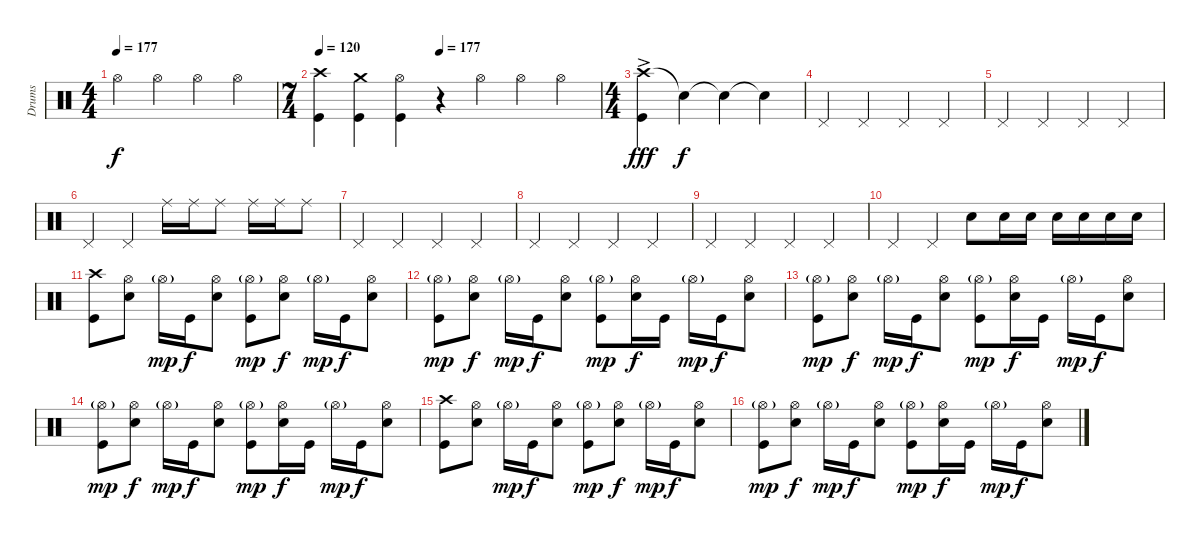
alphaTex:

\track ("Drums" "Drums") {instrument percussion}
\staff {score}
\articulation defaults
\ts (4 4)
\tempo 177
\clef neutral
\ks c "Hi-Hat (open)".4{dy f} "Hi-Hat (open)".4 "Hi-Hat (open)".4 "Hi-Hat (open)".4
|
\ts (7 4)
\tempo 120
\tempo (177 0.42857142857142855)
("Crash high (hit)" "Kick (hit)").4 ("Crash medium (hit)" "Kick (hit)").4 ("Hi-Hat (open)" "Kick (hit)").4 r.4 "Hi-Hat (open)".4 "Hi-Hat (open)".4 "Hi-Hat (open)".4 |
\ts (4 4)
("Crash high (hit)"{ac} "Kick (hit)").4{dy fff} "Snare (hit)"{t}.4{dy f} "Snare (hit)"{t}.4 "Snare (hit)"{t}.4 |
"Pedal Hi-Hat (hit)".4 "Pedal Hi-Hat (hit)".4 "Pedal Hi-Hat (hit)".4 "Pedal Hi-Hat (hit)".4 |
"Pedal Hi-Hat (hit)".4 "Pedal Hi-Hat (hit)".4 "Pedal Hi-Hat (hit)".4 "Pedal Hi-Hat (hit)".4 |
"Pedal Hi-Hat (hit)".4 "Pedal Hi-Hat (hit)".4 "Ride (middle)".16 "Ride (middle)".16 "Ride (middle)".8 "Ride (middle)".16 "Ride (middle)".16 "Ride (middle)".8 |
"Pedal Hi-Hat (hit)".4 "Pedal Hi-Hat (hit)".4 "Pedal Hi-Hat (hit)".4 "Pedal Hi-Hat (hit)".4 |
"Pedal Hi-Hat (hit)".4 "Pedal Hi-Hat (hit)".4 "Pedal Hi-Hat (hit)".4 "Pedal Hi-Hat (hit)".4 |
"Pedal Hi-Hat (hit)".4 "Pedal Hi-Hat (hit)".4 "Pedal Hi-Hat (hit)".4 "Pedal Hi-Hat (hit)".4 |
"Pedal Hi-Hat (hit)".4 "Pedal Hi-Hat (hit)".4 "Electric Snare (hit)".8 "Electric Snare (hit)".16 "Electric Snare (hit)".16 "Electric Snare (hit)".16 "Electric Snare (hit)".16 "Electric Snare (hit)".16 "Electric Snare (hit)".16 |
("Crash high (hit)" "Kick (hit)").8 ("Hi-Hat (open)" "Electric Snare (hit)").8 "Hi-Hat (open)"{g}.16{dy mp} "Kick (hit)".16{dy f} ("Hi-Hat (open)" "Electric Snare (hit)").8 ("Hi-Hat (open)"{g} "Kick (hit)").8{dy mp} ("Hi-Hat (open)" "Electric Snare (hit)").8{dy f} "Hi-Hat (open)"{g}.16{dy mp} "Kick (hit)".16{dy f} ("Hi-Hat (open)" "Electric Snare (hit)").8 |
("Hi-Hat (open)"{g} "Kick (hit)").8{dy mp} ("Hi-Hat (open)" "Electric Snare (hit)").8{dy f} "Hi-Hat (open)"{g}.16{dy mp} "Kick (hit)".16{dy f} ("Hi-Hat (open)" "Electric Snare (hit)").8 ("Hi-Hat (open)"{g} "Kick (hit)").8{dy mp} ("Hi-Hat (open)" "Electric Snare (hit)").16{dy f} "Kick (hit)".16 "Hi-Hat (open)"{g}.16{dy mp} "Kick (hit)".16{dy f} ("Hi-Hat (open)" "Electric Snare (hit)").8 |
("Hi-Hat (open)"{g} "Kick (hit)").8{dy mp} ("Hi-Hat (open)" "Electric Snare (hit)").8{dy f} "Hi-Hat (open)"{g}.16{dy mp} "Kick (hit)".16{dy f} ("Hi-Hat (open)" "Electric Snare (hit)").8 ("Hi-Hat (open)"{g} "Kick (hit)").8{dy mp} ("Hi-Hat (open)" "Electric Snare (hit)").16{dy f} "Kick (hit)".16 "Hi-Hat (open)"{g}.16{dy mp} "Kick (hit)".16{dy f} ("Hi-Hat (open)" "Electric Snare (hit)").8 |
("Hi-Hat (open)"{g} "Kick (hit)").8{dy mp} ("Hi-Hat (open)" "Electric Snare (hit)").8{dy f} "Hi-Hat (open)"{g}.16{dy mp} "Kick (hit)".16{dy f} ("Hi-Hat (open)" "Electric Snare (hit)").8 ("Hi-Hat (open)"{g} "Kick (hit)").8{dy mp} ("Hi-Hat (open)" "Electric Snare (hit)").16{dy f} "Kick (hit)".16 "Hi-Hat (open)"{g}.16{dy mp} "Kick (hit)".16{dy f} ("Hi-Hat (open)" "Electric Snare (hit)").8 |
("Crash high (hit)" "Kick (hit)").8 ("Hi-Hat (open)" "Electric Snare (hit)").8 "Hi-Hat (open)"{g}.16{dy mp} "Kick (hit)".16{dy f} ("Hi-Hat (open)" "Electric Snare (hit)").8 ("Hi-Hat (open)"{g} "Kick (hit)").8{dy mp} ("Hi-Hat (open)" "Electric Snare (hit)").8{dy f} "Hi-Hat (open)"{g}.16{dy mp} "Kick (hit)".16{dy f} ("Hi-Hat (open)" "Electric Snare (hit)").8 |
("Hi-Hat (open)"{g} "Kick (hit)").8{dy mp} ("Hi-Hat (open)" "Electric Snare (hit)").8{dy f} "Hi-Hat (open)"{g}.16{dy mp} "Kick (hit)".16{dy f} ("Hi-Hat (open)" "Electric Snare (hit)").8 ("Hi-Hat (open)"{g} "Kick (hit)").8{dy mp} ("Hi-Hat (open)" "Electric Snare (hit)").16{dy f} "Kick (hit)".16 "Hi-Hat (open)"{g}.16{dy mp} "Kick (hit)".16{dy f} ("Hi-Hat (open)" "Electric Snare (hit)").8
